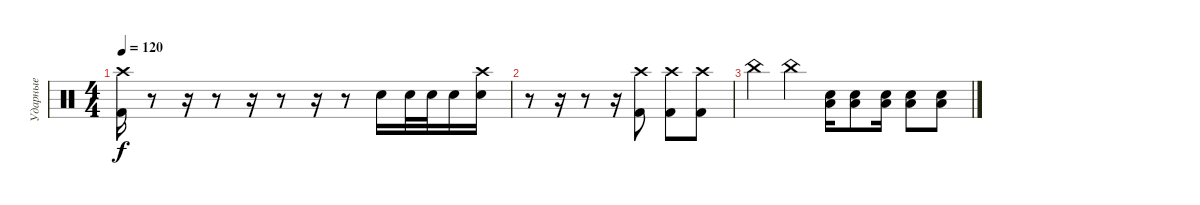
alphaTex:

\track ("Ударные" "Ударные") {instrument percussion}
\staff {score}
\articulation defaults
\ts (4 4)
\tempo 120
\clef neutral
\ks c
("Kick (hit) 2" "Crash high (hit)").16{dy f} r.8 r.16 r.8 r.16 r.8 r.16 r.8 "Electric Snare (hit)".16 "Electric Snare (hit)".32 "Electric Snare (hit)".32 "Electric Snare (hit)".16 ("Electric Snare (hit)" "Crash high (hit)").16 |
r.8 r.16 r.8 r.16 ("Kick (hit) 2" "Crash high (hit)").8 ("Kick (hit) 2" "Crash high (hit)").8 ("Kick (hit) 2" "Crash high (hit)").8 |
"China (hit)".4 "China (hit)".4 ("Low Tom (hit)" "Electric Snare (hit)").16 ("Low Tom (hit)" "Electric Snare (hit)").8 ("Low Tom (hit)" "Electric Snare (hit)").16 ("Low Tom (hit)" "Electric Snare (hit)").8 ("Low Tom (hit)" "Electric Snare (hit)").8
